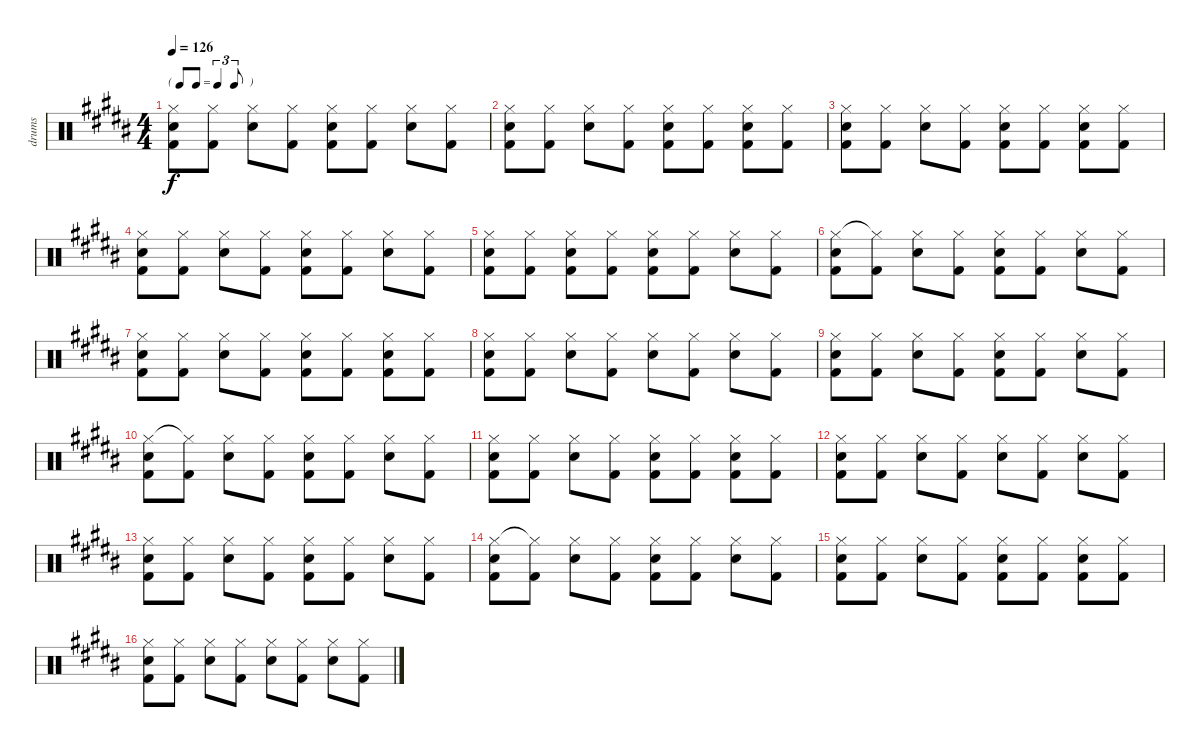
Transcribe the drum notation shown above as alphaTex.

\track ("drums" "drums") {instrument percussion}
\staff {score}
\articulation defaults
\ts (4 4)
\tf triplet8th
\tempo 126
\clef neutral
\ks b
("Hi-Hat (closed)" "Electric Snare (hit)" "Kick (hit) 2").8{dy f} ("Hi-Hat (closed)" "Kick (hit) 2").8 ("Hi-Hat (closed)" "Electric Snare (hit)").8 ("Hi-Hat (closed)" "Kick (hit) 2").8 ("Hi-Hat (closed)" "Electric Snare (hit)" "Kick (hit) 2").8 ("Hi-Hat (closed)" "Kick (hit) 2").8 ("Hi-Hat (closed)" "Electric Snare (hit)").8 ("Hi-Hat (closed)" "Kick (hit) 2").8 |
("Hi-Hat (closed)" "Electric Snare (hit)" "Kick (hit) 2").8 ("Hi-Hat (closed)" "Kick (hit) 2").8 ("Hi-Hat (closed)" "Electric Snare (hit)").8 ("Hi-Hat (closed)" "Kick (hit) 2").8 ("Hi-Hat (closed)" "Electric Snare (hit)" "Kick (hit) 2").8 ("Hi-Hat (closed)" "Kick (hit) 2").8 ("Hi-Hat (closed)" "Electric Snare (hit)" "Kick (hit) 2").8 ("Hi-Hat (closed)" "Kick (hit) 2").8 |
("Hi-Hat (closed)" "Electric Snare (hit)" "Kick (hit) 2").8 ("Hi-Hat (closed)" "Kick (hit) 2").8 ("Hi-Hat (closed)" "Electric Snare (hit)").8 ("Hi-Hat (closed)" "Kick (hit) 2").8 ("Hi-Hat (closed)" "Electric Snare (hit)" "Kick (hit) 2").8 ("Hi-Hat (closed)" "Kick (hit) 2").8 ("Hi-Hat (closed)" "Electric Snare (hit)" "Kick (hit) 2").8 ("Hi-Hat (closed)" "Kick (hit) 2").8 |
("Hi-Hat (closed)" "Electric Snare (hit)" "Kick (hit) 2").8 ("Hi-Hat (closed)" "Kick (hit) 2").8 ("Hi-Hat (closed)" "Electric Snare (hit)").8 ("Hi-Hat (closed)" "Kick (hit) 2").8 ("Hi-Hat (closed)" "Electric Snare (hit)" "Kick (hit) 2").8 ("Hi-Hat (closed)" "Kick (hit) 2").8 ("Hi-Hat (closed)" "Electric Snare (hit)").8 ("Hi-Hat (closed)" "Kick (hit) 2").8 |
("Hi-Hat (closed)" "Electric Snare (hit)" "Kick (hit) 2").8 ("Hi-Hat (closed)" "Kick (hit) 2").8 ("Hi-Hat (closed)" "Electric Snare (hit)" "Kick (hit) 2").8 ("Hi-Hat (closed)" "Kick (hit) 2").8 ("Hi-Hat (closed)" "Electric Snare (hit)" "Kick (hit) 2").8 ("Hi-Hat (closed)" "Kick (hit) 2").8 ("Hi-Hat (closed)" "Electric Snare (hit)").8 ("Hi-Hat (closed)" "Kick (hit) 2").8 |
("Hi-Hat (closed)" "Electric Snare (hit)" "Kick (hit) 2").8 ("Hi-Hat (closed)"{t} "Kick (hit) 2").8 ("Hi-Hat (closed)" "Electric Snare (hit)").8 ("Hi-Hat (closed)" "Kick (hit) 2").8 ("Hi-Hat (closed)" "Electric Snare (hit)" "Kick (hit) 2").8 ("Hi-Hat (closed)" "Kick (hit) 2").8 ("Hi-Hat (closed)" "Electric Snare (hit)").8 ("Hi-Hat (closed)" "Kick (hit) 2").8 |
("Hi-Hat (closed)" "Electric Snare (hit)" "Kick (hit) 2").8 ("Hi-Hat (closed)" "Kick (hit) 2").8 ("Hi-Hat (closed)" "Electric Snare (hit)").8 ("Hi-Hat (closed)" "Kick (hit) 2").8 ("Hi-Hat (closed)" "Electric Snare (hit)" "Kick (hit) 2").8 ("Hi-Hat (closed)" "Kick (hit) 2").8 ("Hi-Hat (closed)" "Electric Snare (hit)" "Kick (hit) 2").8 ("Hi-Hat (closed)" "Kick (hit) 2").8 |
("Hi-Hat (closed)" "Electric Snare (hit)" "Kick (hit) 2").8 ("Hi-Hat (closed)" "Kick (hit) 2").8 ("Hi-Hat (closed)" "Electric Snare (hit)").8 ("Hi-Hat (closed)" "Kick (hit) 2").8 ("Hi-Hat (closed)" "Electric Snare (hit)").8 ("Hi-Hat (closed)" "Kick (hit) 2").8 ("Hi-Hat (closed)" "Electric Snare (hit)").8 ("Hi-Hat (closed)" "Kick (hit) 2").8 |
("Hi-Hat (closed)" "Electric Snare (hit)" "Kick (hit) 2").8 ("Hi-Hat (closed)" "Kick (hit) 2").8 ("Hi-Hat (closed)" "Electric Snare (hit)").8 ("Hi-Hat (closed)" "Kick (hit) 2").8 ("Hi-Hat (closed)" "Electric Snare (hit)" "Kick (hit) 2").8 ("Hi-Hat (closed)" "Kick (hit) 2").8 ("Hi-Hat (closed)" "Electric Snare (hit)").8 ("Hi-Hat (closed)" "Kick (hit) 2").8 |
("Hi-Hat (closed)" "Electric Snare (hit)" "Kick (hit) 2").8 ("Hi-Hat (closed)"{t} "Kick (hit) 2").8 ("Hi-Hat (closed)" "Electric Snare (hit)").8 ("Hi-Hat (closed)" "Kick (hit) 2").8 ("Hi-Hat (closed)" "Electric Snare (hit)" "Kick (hit) 2").8 ("Hi-Hat (closed)" "Kick (hit) 2").8 ("Hi-Hat (closed)" "Electric Snare (hit)").8 ("Hi-Hat (closed)" "Kick (hit) 2").8 |
("Hi-Hat (closed)" "Electric Snare (hit)" "Kick (hit) 2").8 ("Hi-Hat (closed)" "Kick (hit) 2").8 ("Hi-Hat (closed)" "Electric Snare (hit)").8 ("Hi-Hat (closed)" "Kick (hit) 2").8 ("Hi-Hat (closed)" "Electric Snare (hit)" "Kick (hit) 2").8 ("Hi-Hat (closed)" "Kick (hit) 2").8 ("Hi-Hat (closed)" "Electric Snare (hit)" "Kick (hit) 2").8 ("Hi-Hat (closed)" "Kick (hit) 2").8 |
("Hi-Hat (closed)" "Electric Snare (hit)" "Kick (hit) 2").8 ("Hi-Hat (closed)" "Kick (hit) 2").8 ("Hi-Hat (closed)" "Electric Snare (hit)").8 ("Hi-Hat (closed)" "Kick (hit) 2").8 ("Hi-Hat (closed)" "Electric Snare (hit)").8 ("Hi-Hat (closed)" "Kick (hit) 2").8 ("Hi-Hat (closed)" "Electric Snare (hit)").8 ("Hi-Hat (closed)" "Kick (hit) 2").8 |
("Hi-Hat (closed)" "Electric Snare (hit)" "Kick (hit) 2").8 ("Hi-Hat (closed)" "Kick (hit) 2").8 ("Hi-Hat (closed)" "Electric Snare (hit)").8 ("Hi-Hat (closed)" "Kick (hit) 2").8 ("Hi-Hat (closed)" "Electric Snare (hit)" "Kick (hit) 2").8 ("Hi-Hat (closed)" "Kick (hit) 2").8 ("Hi-Hat (closed)" "Electric Snare (hit)").8 ("Hi-Hat (closed)" "Kick (hit) 2").8 |
("Hi-Hat (closed)" "Electric Snare (hit)" "Kick (hit) 2").8 ("Hi-Hat (closed)"{t} "Kick (hit) 2").8 ("Hi-Hat (closed)" "Electric Snare (hit)").8 ("Hi-Hat (closed)" "Kick (hit) 2").8 ("Hi-Hat (closed)" "Electric Snare (hit)" "Kick (hit) 2").8 ("Hi-Hat (closed)" "Kick (hit) 2").8 ("Hi-Hat (closed)" "Electric Snare (hit)").8 ("Hi-Hat (closed)" "Kick (hit) 2").8 |
("Hi-Hat (closed)" "Electric Snare (hit)" "Kick (hit) 2").8 ("Hi-Hat (closed)" "Kick (hit) 2").8 ("Hi-Hat (closed)" "Electric Snare (hit)").8 ("Hi-Hat (closed)" "Kick (hit) 2").8 ("Hi-Hat (closed)" "Electric Snare (hit)" "Kick (hit) 2").8 ("Hi-Hat (closed)" "Kick (hit) 2").8 ("Hi-Hat (closed)" "Electric Snare (hit)" "Kick (hit) 2").8 ("Hi-Hat (closed)" "Kick (hit) 2").8 |
("Hi-Hat (closed)" "Electric Snare (hit)" "Kick (hit) 2").8 ("Hi-Hat (closed)" "Kick (hit) 2").8 ("Hi-Hat (closed)" "Electric Snare (hit)").8 ("Hi-Hat (closed)" "Kick (hit) 2").8 ("Hi-Hat (closed)" "Electric Snare (hit)").8 ("Hi-Hat (closed)" "Kick (hit) 2").8 ("Hi-Hat (closed)" "Electric Snare (hit)").8 ("Hi-Hat (closed)" "Kick (hit) 2").8
